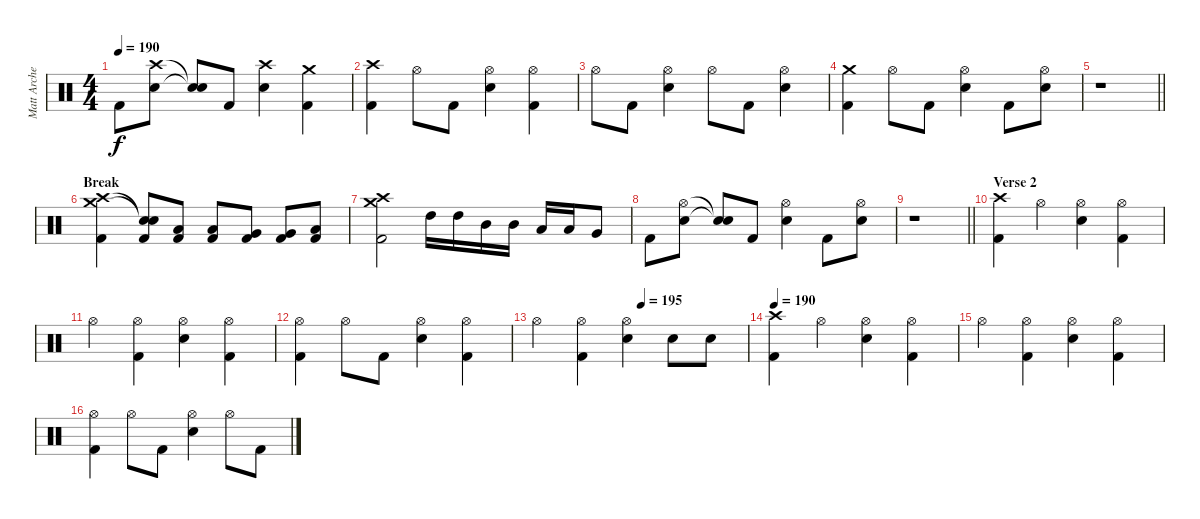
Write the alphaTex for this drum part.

\track ("Matt Archer" "Matt Arche") {instrument percussion}
\staff {score}
\articulation defaults
\ts (4 4)
\tempo 190
\clef neutral
\ks c "Kick (hit) 2".8{dy f}
("Crash high (hit)" "Snare (hit) 2").8 ("Snare (hit)"{t} "Snare (hit)"{t}).8 "Kick (hit) 2".8 ("Crash high (hit)" "Snare (hit) 2").4 ("Crash medium (hit)" "Kick (hit) 2").4 |
("Crash high (hit)" "Kick (hit) 2").4 "Hi-Hat (open)".8 "Kick (hit) 2".8 ("Hi-Hat (open)" "Snare (hit) 2").4 ("Hi-Hat (open)" "Kick (hit) 2").4 |
"Hi-Hat (open)".8 "Kick (hit) 2".8 ("Hi-Hat (open)" "Snare (hit) 2").4 "Hi-Hat (open)".8 "Kick (hit) 2".8 ("Hi-Hat (open)" "Snare (hit) 2").4 |
("Crash medium (hit)" "Kick (hit) 2").4 "Hi-Hat (open)".8 "Kick (hit) 2".8 ("Hi-Hat (open)" "Snare (hit) 2").4 "Kick (hit) 2".8 ("Hi-Hat (open)" "Snare (hit) 2").8 |
\barLineRight lightlight
r.1 |
\section ("" "Break")
("Crash high (hit)" "Crash medium (hit)" "Kick (hit) 2").4 ("Snare (hit)"{t} "Snare (hit)"{t} "Kick (hit) 2").8 ("Low Tom (hit)" "Kick (hit) 2").8 ("Low Tom (hit)" "Kick (hit) 2").8 ("Very Low Tom (hit)" "Kick (hit) 2").8 ("Very Low Tom (hit)" "Kick (hit) 2").8 ("Low Floor Tom (hit)" "Kick (hit) 2").8 |
("Crash high (hit)" "Crash medium (hit)" "Kick (hit) 2").2 "High Tom (hit)".16 "High Tom (hit)".16 "Mid Tom (hit)".16 "Mid Tom (hit)".16 "Low Tom (hit)".16 "Low Tom (hit)".16 "Very Low Tom (hit)".8 |
"Kick (hit) 2".8 ("Hi-Hat (open)" "Snare (hit) 2").8 ("Snare (hit)"{t} "Snare (hit)"{t}).8 "Kick (hit) 2".8 ("Hi-Hat (open)" "Snare (hit) 2").4 "Kick (hit) 2".8 ("Hi-Hat (open)" "Snare (hit) 2").8 |
\barLineRight lightlight
r.1 |
\section ("" "Verse 2")
("Crash high (hit)" "Kick (hit) 2").4 "Hi-Hat (open)".4 ("Hi-Hat (open)" "Snare (hit) 2").4 ("Hi-Hat (open)" "Kick (hit) 2").4 |
"Hi-Hat (open)".4 ("Hi-Hat (open)" "Kick (hit) 2").4 ("Hi-Hat (open)" "Snare (hit) 2").4 ("Hi-Hat (open)" "Kick (hit) 2").4 |
("Hi-Hat (open)" "Kick (hit) 2").4 "Hi-Hat (open)".8 "Kick (hit) 2".8 ("Hi-Hat (open)" "Snare (hit) 2").4 ("Hi-Hat (open)" "Kick (hit) 2").4 |
\tempo (195 0.5)
"Hi-Hat (open)".4 ("Hi-Hat (open)" "Kick (hit) 2").4 ("Hi-Hat (open)" "Snare (hit) 2").4 "Snare (hit) 2".8 "Snare (hit) 2".8 |
\tempo 190
("Crash high (hit)" "Kick (hit) 2").4 "Hi-Hat (open)".4 ("Hi-Hat (open)" "Snare (hit) 2").4 ("Hi-Hat (open)" "Kick (hit) 2").4 |
"Hi-Hat (open)".4 ("Hi-Hat (open)" "Kick (hit) 2").4 ("Hi-Hat (open)" "Snare (hit) 2").4 ("Hi-Hat (open)" "Kick (hit) 2").4 |
("Hi-Hat (open)" "Kick (hit) 2").4 "Hi-Hat (open)".8 "Kick (hit) 2".8 ("Hi-Hat (open)" "Snare (hit) 2").4 "Hi-Hat (open)".8 "Kick (hit) 2".8
